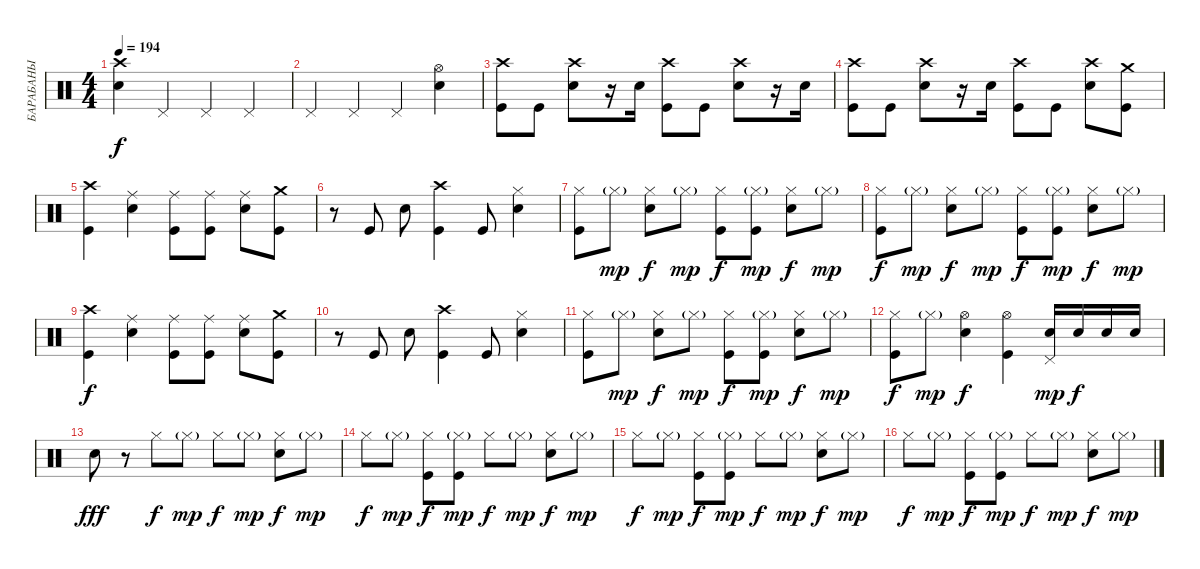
\track ("БАРАБАНЫ" "БАРАБАНЫ") {instrument percussion}
\staff {score}
\articulation defaults
\ts (4 4)
\tempo 194
\clef neutral
\ks c
("Crash high (hit)" "Electric Snare (hit)").4{dy f} "Pedal Hi-Hat (hit)".4 "Pedal Hi-Hat (hit)".4 "Pedal Hi-Hat (hit)".4 |
"Pedal Hi-Hat (hit)".4 "Pedal Hi-Hat (hit)".4 "Pedal Hi-Hat (hit)".4 ("Hi-Hat (open)" "Electric Snare (hit)").4 |
("Crash high (hit)" "Kick (hit)").8 "Kick (hit)".8 ("Crash high (hit)" "Electric Snare (hit)").8 r.16 "Electric Snare (hit)".16 ("Crash high (hit)" "Kick (hit)").8 "Kick (hit)".8 ("Crash high (hit)" "Electric Snare (hit)").8 r.16 "Electric Snare (hit)".16 |
("Crash high (hit)" "Kick (hit)").8 "Kick (hit)".8 ("Crash high (hit)" "Electric Snare (hit)").8 r.16 "Electric Snare (hit)".16 ("Crash high (hit)" "Kick (hit)").8 "Kick (hit)".8 ("Crash high (hit)" "Electric Snare (hit)").8 ("Crash medium (hit)" "Kick (hit)").8 |
("Crash high (hit)" "Kick (hit)").4 ("Ride (middle)" "Electric Snare (hit)").4 ("Ride (middle)" "Kick (hit)").8 ("Ride (middle)" "Kick (hit)").8 ("Ride (middle)" "Electric Snare (hit)").8 ("Crash medium (hit)" "Kick (hit)").8 |
r.8 "Kick (hit)".8 "Electric Snare (hit)".8 ("Crash high (hit)" "Kick (hit)").4 "Kick (hit)".8 ("Hi-Hat (closed)" "Electric Snare (hit)").4 |
("Hi-Hat (closed)" "Kick (hit)").8 "Hi-Hat (closed)"{g}.8{dy mp} ("Hi-Hat (closed)" "Electric Snare (hit)").8{dy f} "Hi-Hat (closed)"{g}.8{dy mp} ("Hi-Hat (closed)" "Kick (hit)").8{dy f} ("Hi-Hat (closed)"{g} "Kick (hit)").8{dy mp} ("Hi-Hat (closed)" "Electric Snare (hit)").8{dy f} "Hi-Hat (closed)"{g}.8{dy mp} |
("Hi-Hat (closed)" "Kick (hit)").8{dy f} "Hi-Hat (closed)"{g}.8{dy mp} ("Hi-Hat (closed)" "Electric Snare (hit)").8{dy f} "Hi-Hat (closed)"{g}.8{dy mp} ("Hi-Hat (closed)" "Kick (hit)").8{dy f} ("Hi-Hat (closed)"{g} "Kick (hit)").8{dy mp} ("Hi-Hat (closed)" "Electric Snare (hit)").8{dy f} "Hi-Hat (closed)"{g}.8{dy mp} |
("Crash high (hit)" "Kick (hit)").4{dy f} ("Ride (middle)" "Electric Snare (hit)").4 ("Ride (middle)" "Kick (hit)").8 ("Ride (middle)" "Kick (hit)").8 ("Ride (middle)" "Electric Snare (hit)").8 ("Crash medium (hit)" "Kick (hit)").8 |
r.8 "Kick (hit)".8 "Electric Snare (hit)".8 ("Crash high (hit)" "Kick (hit)").4 "Kick (hit)".8 ("Hi-Hat (closed)" "Electric Snare (hit)").4 |
("Hi-Hat (closed)" "Kick (hit)").8 "Hi-Hat (closed)"{g}.8{dy mp} ("Hi-Hat (closed)" "Electric Snare (hit)").8{dy f} "Hi-Hat (closed)"{g}.8{dy mp} ("Hi-Hat (closed)" "Kick (hit)").8{dy f} ("Hi-Hat (closed)"{g} "Kick (hit)").8{dy mp} ("Hi-Hat (closed)" "Electric Snare (hit)").8{dy f} "Hi-Hat (closed)"{g}.8{dy mp} |
("Hi-Hat (closed)" "Kick (hit)").8{dy f} "Hi-Hat (closed)"{g}.8{dy mp} ("Hi-Hat (open)" "Electric Snare (hit)").4{dy f} ("Hi-Hat (open)" "Kick (hit)").4 ("Pedal Hi-Hat (hit)" "Electric Snare (hit)").16{dy mp} "Electric Snare (hit)".16{dy f} "Electric Snare (hit)".16 "Electric Snare (hit)".16 |
"Electric Snare (hit)".8{dy fff} r.8 "Hi-Hat (closed)".8{dy f} "Hi-Hat (closed)"{g}.8{dy mp} "Hi-Hat (closed)".8{dy f} "Hi-Hat (closed)"{g}.8{dy mp} ("Hi-Hat (closed)" "Electric Snare (hit)").8{dy f} "Hi-Hat (closed)"{g}.8{dy mp} |
"Hi-Hat (closed)".8{dy f} "Hi-Hat (closed)"{g}.8{dy mp} ("Hi-Hat (closed)" "Kick (hit)").8{dy f} ("Hi-Hat (closed)"{g} "Kick (hit)").8{dy mp} "Hi-Hat (closed)".8{dy f} "Hi-Hat (closed)"{g}.8{dy mp} ("Hi-Hat (closed)" "Electric Snare (hit)").8{dy f} "Hi-Hat (closed)"{g}.8{dy mp} |
"Hi-Hat (closed)".8{dy f} "Hi-Hat (closed)"{g}.8{dy mp} ("Hi-Hat (closed)" "Kick (hit)").8{dy f} ("Hi-Hat (closed)"{g} "Kick (hit)").8{dy mp} "Hi-Hat (closed)".8{dy f} "Hi-Hat (closed)"{g}.8{dy mp} ("Hi-Hat (closed)" "Electric Snare (hit)").8{dy f} "Hi-Hat (closed)"{g}.8{dy mp} |
"Hi-Hat (closed)".8{dy f} "Hi-Hat (closed)"{g}.8{dy mp} ("Hi-Hat (closed)" "Kick (hit)").8{dy f} ("Hi-Hat (closed)"{g} "Kick (hit)").8{dy mp} "Hi-Hat (closed)".8{dy f} "Hi-Hat (closed)"{g}.8{dy mp} ("Hi-Hat (closed)" "Electric Snare (hit)").8{dy f} "Hi-Hat (closed)"{g}.8{dy mp}
